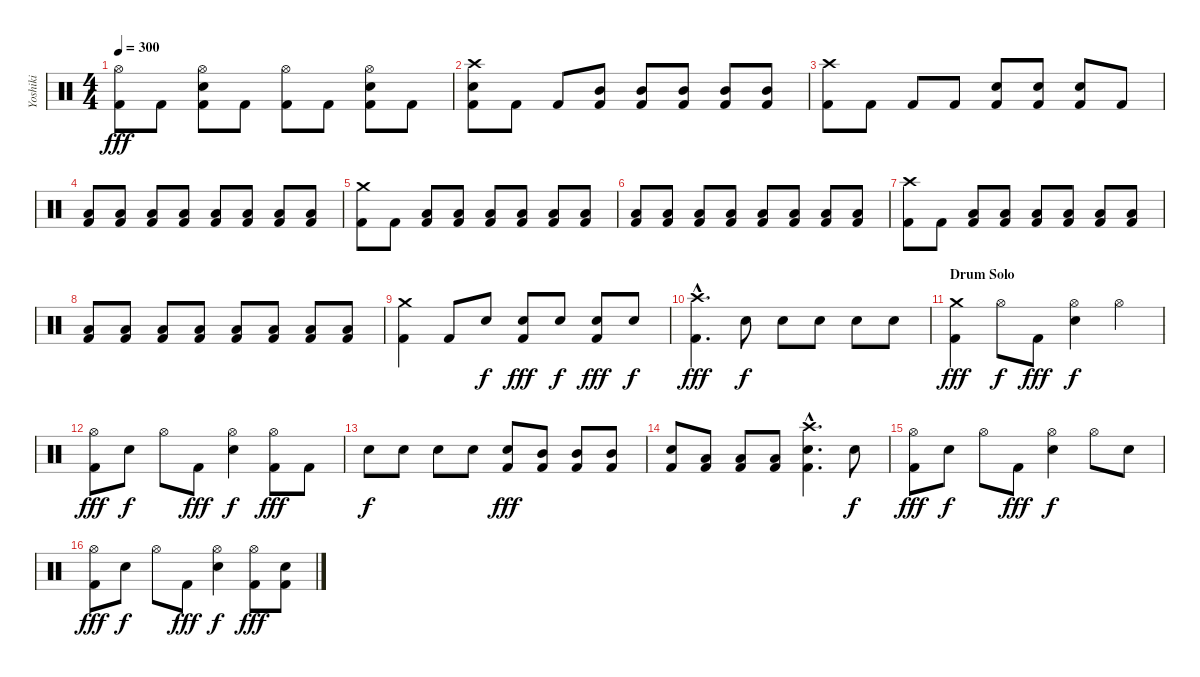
\track ("Yoshiki" "Yoshiki") {instrument percussion}
\staff {score}
\articulation defaults
\ts (4 4)
\tempo 300
\clef neutral
\ks c
("Hi-Hat (open)" "Kick (hit) 2").8{dy fff} "Kick (hit) 2".8 ("Hi-Hat (open)" "Snare (hit) 2" "Kick (hit) 2").8 "Kick (hit) 2".8 ("Hi-Hat (open)" "Kick (hit) 2").8 "Kick (hit) 2".8 ("Hi-Hat (open)" "Snare (hit) 2" "Kick (hit) 2").8 "Kick (hit) 2".8 |
("Crash high (hit)" "Snare (hit) 2" "Kick (hit) 2").8 "Kick (hit) 2".8 "Kick (hit) 2".8 ("Mid Tom (hit)" "Kick (hit) 2").8 ("Mid Tom (hit)" "Kick (hit) 2").8 ("Mid Tom (hit)" "Kick (hit) 2").8 ("Mid Tom (hit)" "Kick (hit) 2").8 ("Mid Tom (hit)" "Kick (hit) 2").8 |
("Crash high (hit)" "Kick (hit) 2").8 "Kick (hit) 2".8 "Kick (hit) 2".8 "Kick (hit) 2".8 ("Snare (hit) 2" "Kick (hit) 2").8 ("Snare (hit) 2" "Kick (hit) 2").8 ("Snare (hit) 2" "Kick (hit) 2").8 "Kick (hit) 2".8 |
("Low Floor Tom (hit)" "Kick (hit) 2").8 ("Low Floor Tom (hit)" "Kick (hit) 2").8 ("Low Floor Tom (hit)" "Kick (hit) 2").8 ("Low Floor Tom (hit)" "Kick (hit) 2").8 ("Low Floor Tom (hit)" "Kick (hit) 2").8 ("Low Floor Tom (hit)" "Kick (hit) 2").8 ("Low Floor Tom (hit)" "Kick (hit) 2").8 ("Low Floor Tom (hit)" "Kick (hit) 2").8 |
("Crash medium (hit)" "Kick (hit) 2").8 "Kick (hit) 2".8 ("Low Floor Tom (hit)" "Kick (hit) 2").8 ("Low Floor Tom (hit)" "Kick (hit) 2").8 ("Low Floor Tom (hit)" "Kick (hit) 2").8 ("Low Floor Tom (hit)" "Kick (hit) 2").8 ("Low Floor Tom (hit)" "Kick (hit) 2").8 ("Low Floor Tom (hit)" "Kick (hit) 2").8 |
("Low Floor Tom (hit)" "Kick (hit) 2").8 ("Low Floor Tom (hit)" "Kick (hit) 2").8 ("Low Floor Tom (hit)" "Kick (hit) 2").8 ("Low Floor Tom (hit)" "Kick (hit) 2").8 ("Low Floor Tom (hit)" "Kick (hit) 2").8 ("Low Floor Tom (hit)" "Kick (hit) 2").8 ("Low Floor Tom (hit)" "Kick (hit) 2").8 ("Low Floor Tom (hit)" "Kick (hit) 2").8 |
("Crash high (hit)" "Kick (hit) 2").8 "Kick (hit) 2".8 ("Low Floor Tom (hit)" "Kick (hit) 2").8 ("Low Floor Tom (hit)" "Kick (hit) 2").8 ("Low Floor Tom (hit)" "Kick (hit) 2").8 ("Low Floor Tom (hit)" "Kick (hit) 2").8 ("Low Floor Tom (hit)" "Kick (hit) 2").8 ("Low Floor Tom (hit)" "Kick (hit) 2").8 |
("Low Floor Tom (hit)" "Kick (hit) 2").8 ("Low Floor Tom (hit)" "Kick (hit) 2").8 ("Low Floor Tom (hit)" "Kick (hit) 2").8 ("Low Floor Tom (hit)" "Kick (hit) 2").8 ("Low Floor Tom (hit)" "Kick (hit) 2").8 ("Low Floor Tom (hit)" "Kick (hit) 2").8 ("Low Floor Tom (hit)" "Kick (hit) 2").8 ("Low Floor Tom (hit)" "Kick (hit) 2").8 |
("Crash medium (hit)" "Kick (hit) 2").4 "Kick (hit) 2".8 "Snare (hit) 2".8{dy f} ("Snare (hit) 2" "Kick (hit) 2").8{dy fff} "Snare (hit) 2".8{dy f} ("Snare (hit) 2" "Kick (hit) 2").8{dy fff} "Snare (hit) 2".8{dy f} |
("Crash high (hit)"{hac} "Kick (hit) 2"{hac}).4{d dy fff} "Snare (hit) 2".8{dy f} "Snare (hit) 2".8 "Snare (hit) 2".8 "Snare (hit) 2".8 "Snare (hit) 2".8 |
\section ("" "Drum Solo")
("Crash medium (hit)" "Kick (hit) 2").4{dy fff} "Hi-Hat (open)".8{dy f} "Kick (hit) 2".8{dy fff} ("Hi-Hat (open)" "Snare (hit) 2").4{dy f} "Hi-Hat (open)".4 |
("Hi-Hat (open)" "Kick (hit) 2").8{dy fff} "Snare (hit) 2".8{dy f} "Hi-Hat (open)".8 "Kick (hit) 2".8{dy fff} ("Hi-Hat (open)" "Snare (hit) 2").4{dy f} ("Hi-Hat (open)" "Kick (hit) 2").8{dy fff} "Kick (hit) 2".8 |
"Snare (hit) 2".8{dy f} "Snare (hit) 2".8 "Snare (hit) 2".8 "Snare (hit) 2".8 ("Snare (hit) 2" "Kick (hit) 2").8{dy fff} ("Mid Tom (hit)" "Kick (hit) 2").8 ("Mid Tom (hit)" "Kick (hit) 2").8 ("Mid Tom (hit)" "Kick (hit) 2").8 |
("Snare (hit) 2" "Kick (hit) 2").8 ("Low Tom (hit)" "Kick (hit) 2").8 ("Low Tom (hit)" "Kick (hit) 2").8 ("Low Tom (hit)" "Kick (hit) 2").8 ("Crash high (hit)"{hac} "Snare (hit) 2"{hac} "Kick (hit) 2"{hac}).4{d} "Snare (hit) 2".8{dy f} |
("Hi-Hat (open)" "Kick (hit) 2").8{dy fff} "Snare (hit) 2".8{dy f} "Hi-Hat (open)".8 "Kick (hit) 2".8{dy fff} ("Hi-Hat (open)" "Snare (hit) 2").4{dy f} "Hi-Hat (open)".8 "Snare (hit) 2".8 |
("Hi-Hat (open)" "Kick (hit) 2").8{dy fff} "Snare (hit) 2".8{dy f} "Hi-Hat (open)".8 "Kick (hit) 2".8{dy fff} ("Hi-Hat (open)" "Snare (hit) 2").4{dy f} ("Hi-Hat (open)" "Kick (hit) 2").8{dy fff} ("Snare (hit) 2" "Kick (hit) 2").8
